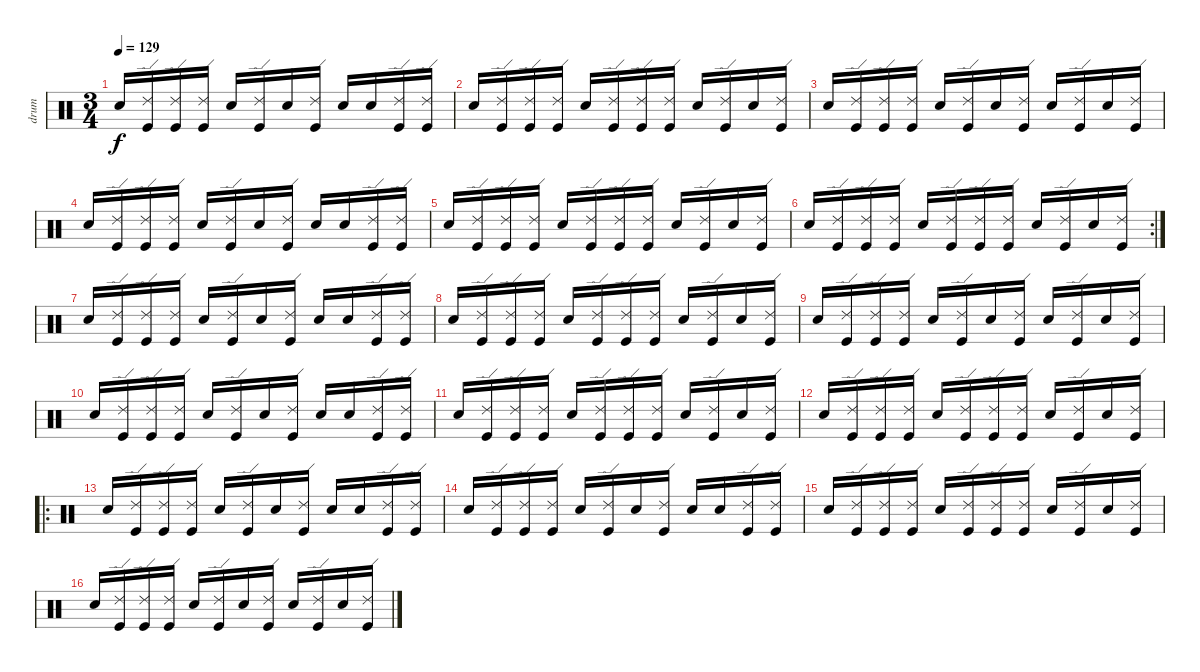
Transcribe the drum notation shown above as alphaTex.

\track ("drum" "drum") {instrument percussion}
\staff {score}
\articulation defaults
\ts (3 4)
\tempo 129
\clef neutral
\ks c "Electric Snare (hit)".16{dy f}
("Kick (hit)" "Ride (edge) 2").16 ("Kick (hit)" "Ride (edge) 2").16 ("Kick (hit)" "Ride (edge) 2").16 "Electric Snare (hit)".16 ("Kick (hit)" "Ride (edge) 2").16 "Electric Snare (hit)".16 ("Kick (hit)" "Ride (edge) 2").16 "Electric Snare (hit)".16 "Electric Snare (hit)".16 ("Kick (hit)" "Ride (edge) 2").16 ("Kick (hit)" "Ride (edge) 2").16 |
"Electric Snare (hit)".16 ("Kick (hit)" "Ride (edge) 2").16 ("Kick (hit)" "Ride (edge) 2").16 ("Kick (hit)" "Ride (edge) 2").16 "Electric Snare (hit)".16 ("Kick (hit)" "Ride (edge) 2").16 ("Kick (hit)" "Ride (edge) 2").16 ("Kick (hit)" "Ride (edge) 2").16 "Electric Snare (hit)".16 ("Kick (hit)" "Ride (edge) 2").16 "Electric Snare (hit)".16 ("Kick (hit)" "Ride (edge) 2").16 |
"Electric Snare (hit)".16 ("Kick (hit)" "Ride (edge) 2").16 ("Kick (hit)" "Ride (edge) 2").16 ("Kick (hit)" "Ride (edge) 2").16 "Electric Snare (hit)".16 ("Kick (hit)" "Ride (edge) 2").16 "Electric Snare (hit)".16 ("Kick (hit)" "Ride (edge) 2").16 "Electric Snare (hit)".16 ("Kick (hit)" "Ride (edge) 2").16 "Electric Snare (hit)".16 ("Kick (hit)" "Ride (edge) 2").16 |
"Electric Snare (hit)".16 ("Kick (hit)" "Ride (edge) 2").16 ("Kick (hit)" "Ride (edge) 2").16 ("Kick (hit)" "Ride (edge) 2").16 "Electric Snare (hit)".16 ("Kick (hit)" "Ride (edge) 2").16 "Electric Snare (hit)".16 ("Kick (hit)" "Ride (edge) 2").16 "Electric Snare (hit)".16 "Electric Snare (hit)".16 ("Kick (hit)" "Ride (edge) 2").16 ("Kick (hit)" "Ride (edge) 2").16 |
"Electric Snare (hit)".16 ("Kick (hit)" "Ride (edge) 2").16 ("Kick (hit)" "Ride (edge) 2").16 ("Kick (hit)" "Ride (edge) 2").16 "Electric Snare (hit)".16 ("Kick (hit)" "Ride (edge) 2").16 ("Kick (hit)" "Ride (edge) 2").16 ("Kick (hit)" "Ride (edge) 2").16 "Electric Snare (hit)".16 ("Kick (hit)" "Ride (edge) 2").16 "Electric Snare (hit)".16 ("Kick (hit)" "Ride (edge) 2").16 |
\rc 2 "Electric Snare (hit)".16
("Kick (hit)" "Ride (edge) 2").16 ("Kick (hit)" "Ride (edge) 2").16 ("Kick (hit)" "Ride (edge) 2").16 "Electric Snare (hit)".16 ("Kick (hit)" "Ride (edge) 2").16 ("Kick (hit)" "Ride (edge) 2").16 ("Kick (hit)" "Ride (edge) 2").16 "Electric Snare (hit)".16 ("Kick (hit)" "Ride (edge) 2").16 "Electric Snare (hit)".16 ("Kick (hit)" "Ride (edge) 2").16 |
"Electric Snare (hit)".16 ("Kick (hit)" "Ride (edge) 2").16 ("Kick (hit)" "Ride (edge) 2").16 ("Kick (hit)" "Ride (edge) 2").16 "Electric Snare (hit)".16 ("Kick (hit)" "Ride (edge) 2").16 "Electric Snare (hit)".16 ("Kick (hit)" "Ride (edge) 2").16 "Electric Snare (hit)".16 "Electric Snare (hit)".16 ("Kick (hit)" "Ride (edge) 2").16 ("Kick (hit)" "Ride (edge) 2").16 |
"Electric Snare (hit)".16 ("Kick (hit)" "Ride (edge) 2").16 ("Kick (hit)" "Ride (edge) 2").16 ("Kick (hit)" "Ride (edge) 2").16 "Electric Snare (hit)".16 ("Kick (hit)" "Ride (edge) 2").16 ("Kick (hit)" "Ride (edge) 2").16 ("Kick (hit)" "Ride (edge) 2").16 "Electric Snare (hit)".16 ("Kick (hit)" "Ride (edge) 2").16 "Electric Snare (hit)".16 ("Kick (hit)" "Ride (edge) 2").16 |
"Electric Snare (hit)".16 ("Kick (hit)" "Ride (edge) 2").16 ("Kick (hit)" "Ride (edge) 2").16 ("Kick (hit)" "Ride (edge) 2").16 "Electric Snare (hit)".16 ("Kick (hit)" "Ride (edge) 2").16 "Electric Snare (hit)".16 ("Kick (hit)" "Ride (edge) 2").16 "Electric Snare (hit)".16 ("Kick (hit)" "Ride (edge) 2").16 "Electric Snare (hit)".16 ("Kick (hit)" "Ride (edge) 2").16 |
"Electric Snare (hit)".16 ("Kick (hit)" "Ride (edge) 2").16 ("Kick (hit)" "Ride (edge) 2").16 ("Kick (hit)" "Ride (edge) 2").16 "Electric Snare (hit)".16 ("Kick (hit)" "Ride (edge) 2").16 "Electric Snare (hit)".16 ("Kick (hit)" "Ride (edge) 2").16 "Electric Snare (hit)".16 "Electric Snare (hit)".16 ("Kick (hit)" "Ride (edge) 2").16 ("Kick (hit)" "Ride (edge) 2").16 |
"Electric Snare (hit)".16 ("Kick (hit)" "Ride (edge) 2").16 ("Kick (hit)" "Ride (edge) 2").16 ("Kick (hit)" "Ride (edge) 2").16 "Electric Snare (hit)".16 ("Kick (hit)" "Ride (edge) 2").16 ("Kick (hit)" "Ride (edge) 2").16 ("Kick (hit)" "Ride (edge) 2").16 "Electric Snare (hit)".16 ("Kick (hit)" "Ride (edge) 2").16 "Electric Snare (hit)".16 ("Kick (hit)" "Ride (edge) 2").16 |
"Electric Snare (hit)".16 ("Kick (hit)" "Ride (edge) 2").16 ("Kick (hit)" "Ride (edge) 2").16 ("Kick (hit)" "Ride (edge) 2").16 "Electric Snare (hit)".16 ("Kick (hit)" "Ride (edge) 2").16 ("Kick (hit)" "Ride (edge) 2").16 ("Kick (hit)" "Ride (edge) 2").16 "Electric Snare (hit)".16 ("Kick (hit)" "Ride (edge) 2").16 "Electric Snare (hit)".16 ("Kick (hit)" "Ride (edge) 2").16 |
\ro "Electric Snare (hit)".16
("Kick (hit)" "Ride (edge) 2").16 ("Kick (hit)" "Ride (edge) 2").16 ("Kick (hit)" "Ride (edge) 2").16 "Electric Snare (hit)".16 ("Kick (hit)" "Ride (edge) 2").16 "Electric Snare (hit)".16 ("Kick (hit)" "Ride (edge) 2").16 "Electric Snare (hit)".16 "Electric Snare (hit)".16 ("Kick (hit)" "Ride (edge) 2").16 ("Kick (hit)" "Ride (edge) 2").16 |
"Electric Snare (hit)".16 ("Kick (hit)" "Ride (edge) 2").16 ("Kick (hit)" "Ride (edge) 2").16 ("Kick (hit)" "Ride (edge) 2").16 "Electric Snare (hit)".16 ("Kick (hit)" "Ride (edge) 2").16 "Electric Snare (hit)".16 ("Kick (hit)" "Ride (edge) 2").16 "Electric Snare (hit)".16 "Electric Snare (hit)".16 ("Kick (hit)" "Ride (edge) 2").16 ("Kick (hit)" "Ride (edge) 2").16 |
"Electric Snare (hit)".16 ("Kick (hit)" "Ride (edge) 2").16 ("Kick (hit)" "Ride (edge) 2").16 ("Kick (hit)" "Ride (edge) 2").16 "Electric Snare (hit)".16 ("Kick (hit)" "Ride (edge) 2").16 ("Kick (hit)" "Ride (edge) 2").16 ("Kick (hit)" "Ride (edge) 2").16 "Electric Snare (hit)".16 ("Kick (hit)" "Ride (edge) 2").16 "Electric Snare (hit)".16 ("Kick (hit)" "Ride (edge) 2").16 |
"Electric Snare (hit)".16 ("Kick (hit)" "Ride (edge) 2").16 ("Kick (hit)" "Ride (edge) 2").16 ("Kick (hit)" "Ride (edge) 2").16 "Electric Snare (hit)".16 ("Kick (hit)" "Ride (edge) 2").16 "Electric Snare (hit)".16 ("Kick (hit)" "Ride (edge) 2").16 "Electric Snare (hit)".16 ("Kick (hit)" "Ride (edge) 2").16 "Electric Snare (hit)".16 ("Kick (hit)" "Ride (edge) 2").16
